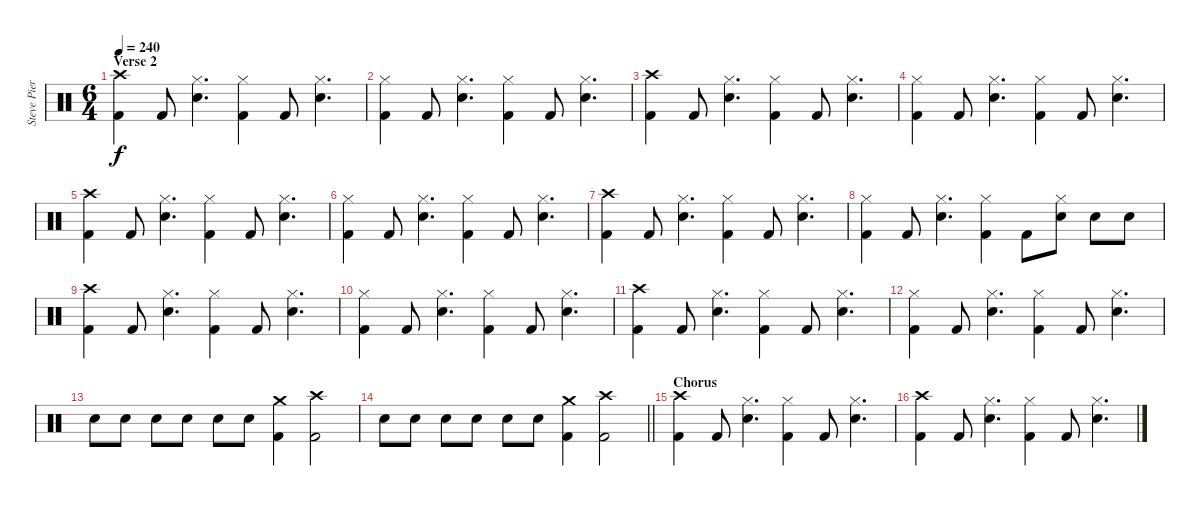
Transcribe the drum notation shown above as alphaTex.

\track ("Steve Pierce" "Steve Pier") {instrument percussion}
\staff {score}
\articulation defaults
\ts (6 4)
\section ("" "Verse 2")
\tempo 240
\clef neutral
\ks c
("Crash high (hit)" "Kick (hit) 2").4{dy f} "Kick (hit) 2".8 ("Hi-Hat (closed)" "Snare (hit) 2").4{d} ("Hi-Hat (closed)" "Kick (hit) 2").4 "Kick (hit) 2".8 ("Hi-Hat (closed)" "Snare (hit) 2").4{d} |
("Hi-Hat (closed)" "Kick (hit) 2").4 "Kick (hit) 2".8 ("Hi-Hat (closed)" "Snare (hit) 2").4{d} ("Hi-Hat (closed)" "Kick (hit) 2").4 "Kick (hit) 2".8 ("Hi-Hat (closed)" "Snare (hit) 2").4{d} |
("Crash high (hit)" "Kick (hit) 2").4 "Kick (hit) 2".8 ("Hi-Hat (closed)" "Snare (hit) 2").4{d} ("Hi-Hat (closed)" "Kick (hit) 2").4 "Kick (hit) 2".8 ("Hi-Hat (closed)" "Snare (hit) 2").4{d} |
("Hi-Hat (closed)" "Kick (hit) 2").4 "Kick (hit) 2".8 ("Hi-Hat (closed)" "Snare (hit) 2").4{d} ("Hi-Hat (closed)" "Kick (hit) 2").4 "Kick (hit) 2".8 ("Hi-Hat (closed)" "Snare (hit) 2").4{d} |
("Crash high (hit)" "Kick (hit) 2").4 "Kick (hit) 2".8 ("Hi-Hat (closed)" "Snare (hit) 2").4{d} ("Hi-Hat (closed)" "Kick (hit) 2").4 "Kick (hit) 2".8 ("Hi-Hat (closed)" "Snare (hit) 2").4{d} |
("Hi-Hat (closed)" "Kick (hit) 2").4 "Kick (hit) 2".8 ("Hi-Hat (closed)" "Snare (hit) 2").4{d} ("Hi-Hat (closed)" "Kick (hit) 2").4 "Kick (hit) 2".8 ("Hi-Hat (closed)" "Snare (hit) 2").4{d} |
("Crash high (hit)" "Kick (hit) 2").4 "Kick (hit) 2".8 ("Hi-Hat (closed)" "Snare (hit) 2").4{d} ("Hi-Hat (closed)" "Kick (hit) 2").4 "Kick (hit) 2".8 ("Hi-Hat (closed)" "Snare (hit) 2").4{d} |
("Hi-Hat (closed)" "Kick (hit) 2").4 "Kick (hit) 2".8 ("Hi-Hat (closed)" "Snare (hit) 2").4{d} ("Hi-Hat (closed)" "Kick (hit) 2").4 "Kick (hit) 2".8 ("Hi-Hat (closed)" "Snare (hit) 2").8 "Snare (hit) 2".8 "Snare (hit) 2".8 |
("Crash high (hit)" "Kick (hit) 2").4 "Kick (hit) 2".8 ("Hi-Hat (closed)" "Snare (hit) 2").4{d} ("Hi-Hat (closed)" "Kick (hit) 2").4 "Kick (hit) 2".8 ("Hi-Hat (closed)" "Snare (hit) 2").4{d} |
("Hi-Hat (closed)" "Kick (hit) 2").4 "Kick (hit) 2".8 ("Hi-Hat (closed)" "Snare (hit) 2").4{d} ("Hi-Hat (closed)" "Kick (hit) 2").4 "Kick (hit) 2".8 ("Hi-Hat (closed)" "Snare (hit) 2").4{d} |
("Crash high (hit)" "Kick (hit) 2").4 "Kick (hit) 2".8 ("Hi-Hat (closed)" "Snare (hit) 2").4{d} ("Hi-Hat (closed)" "Kick (hit) 2").4 "Kick (hit) 2".8 ("Hi-Hat (closed)" "Snare (hit) 2").4{d} |
("Hi-Hat (closed)" "Kick (hit) 2").4 "Kick (hit) 2".8 ("Hi-Hat (closed)" "Snare (hit) 2").4{d} ("Hi-Hat (closed)" "Kick (hit) 2").4 "Kick (hit) 2".8 ("Hi-Hat (closed)" "Snare (hit) 2").4{d} |
"Snare (hit) 2".8 "Snare (hit) 2".8 "Snare (hit) 2".8 "Snare (hit) 2".8 "Snare (hit) 2".8 "Snare (hit) 2".8 ("Crash medium (hit)" "Kick (hit) 2").4 ("Crash high (hit)" "Kick (hit) 2").2 |
\barLineRight lightlight "Snare (hit) 2".8 "Snare (hit) 2".8 "Snare (hit) 2".8 "Snare (hit) 2".8 "Snare (hit) 2".8 "Snare (hit) 2".8
("Crash medium (hit)" "Kick (hit) 2").4 ("Crash high (hit)" "Kick (hit) 2").2 |
\section ("" "Chorus")
("Crash high (hit)" "Kick (hit) 2").4 "Kick (hit) 2".8 ("Hi-Hat (closed)" "Snare (hit) 2").4{d} ("Hi-Hat (closed)" "Kick (hit) 2").4 "Kick (hit) 2".8 ("Hi-Hat (closed)" "Snare (hit) 2").4{d} |
("Crash high (hit)" "Kick (hit) 2").4 "Kick (hit) 2".8 ("Hi-Hat (closed)" "Snare (hit) 2").4{d} ("Hi-Hat (closed)" "Kick (hit) 2").4 "Kick (hit) 2".8 ("Hi-Hat (closed)" "Snare (hit) 2").4{d}
